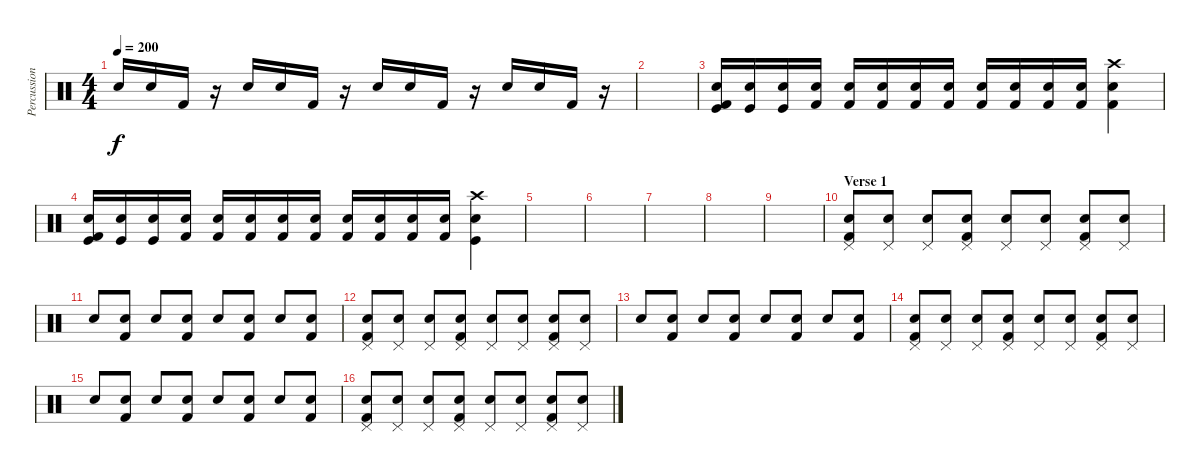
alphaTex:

\track ("Percussion" "Percussion") {instrument percussion}
\staff {score}
\articulation defaults
\ts (4 4)
\tempo 200
\clef neutral
\ks c "Snare (hit) 2".16{dy f} "Electric Snare (hit)".16 "Kick (hit) 2".16
r.16 "Snare (hit) 2".16 "Electric Snare (hit)".16 "Kick (hit) 2".16 r.16 "Snare (hit) 2".16 "Electric Snare (hit)".16 "Kick (hit) 2".16 r.16 "Snare (hit) 2".16 "Electric Snare (hit)".16 "Kick (hit) 2".16 r.16 |
|
("Kick (hit) 2" "Kick (hit)" "Snare (hit) 2").16 ("Kick (hit)" "Electric Snare (hit)").16 ("Snare (hit) 2" "Kick (hit)").16 ("Electric Snare (hit)" "Kick (hit) 2").16 ("Kick (hit) 2" "Snare (hit) 2").16 ("Kick (hit) 2" "Electric Snare (hit)").16 ("Kick (hit) 2" "Snare (hit) 2").16 ("Snare (hit) 2" "Kick (hit) 2").16 ("Kick (hit) 2" "Electric Snare (hit)").16 ("Snare (hit) 2" "Kick (hit) 2").16 ("Kick (hit) 2" "Electric Snare (hit)").16 ("Snare (hit) 2" "Kick (hit) 2").16 ("Kick (hit) 2" "Crash high (hit)" "Snare (hit) 2").4 |
\section ("" "")
("Kick (hit) 2" "Kick (hit)" "Snare (hit) 2").16 ("Kick (hit)" "Electric Snare (hit)").16 ("Snare (hit) 2" "Kick (hit)").16 ("Electric Snare (hit)" "Kick (hit) 2").16 ("Kick (hit) 2" "Snare (hit) 2").16 ("Kick (hit) 2" "Electric Snare (hit)").16 ("Kick (hit) 2" "Snare (hit) 2").16 ("Snare (hit) 2" "Kick (hit) 2").16 ("Kick (hit) 2" "Electric Snare (hit)").16 ("Snare (hit) 2" "Kick (hit) 2").16 ("Kick (hit) 2" "Electric Snare (hit)").16 ("Snare (hit) 2" "Kick (hit) 2").16 ("Crash high (hit)" "Kick (hit)" "Snare (hit) 2").4 |
|
|
|
|
|
\section ("" "Verse 1")
("Pedal Hi-Hat (hit)" "Kick (hit) 2" "Snare (hit) 2").8 ("Pedal Hi-Hat (hit)" "Electric Snare (hit)").8 ("Pedal Hi-Hat (hit)" "Electric Snare (hit)").8 ("Pedal Hi-Hat (hit)" "Snare (hit) 2" "Kick (hit) 2").8 ("Pedal Hi-Hat (hit)" "Electric Snare (hit)").8 ("Pedal Hi-Hat (hit)" "Electric Snare (hit)").8 ("Pedal Hi-Hat (hit)" "Kick (hit) 2" "Snare (hit) 2").8 ("Pedal Hi-Hat (hit)" "Electric Snare (hit)").8 |
"Electric Snare (hit)".8 ("Kick (hit) 2" "Snare (hit) 2").8 "Electric Snare (hit)".8 ("Kick (hit) 2" "Snare (hit) 2").8 "Electric Snare (hit)".8 ("Snare (hit) 2" "Kick (hit) 2").8 "Electric Snare (hit)".8 ("Snare (hit) 2" "Kick (hit) 2").8 |
("Pedal Hi-Hat (hit)" "Kick (hit) 2" "Snare (hit) 2").8 ("Pedal Hi-Hat (hit)" "Electric Snare (hit)").8 ("Pedal Hi-Hat (hit)" "Electric Snare (hit)").8 ("Pedal Hi-Hat (hit)" "Snare (hit) 2" "Kick (hit) 2").8 ("Pedal Hi-Hat (hit)" "Electric Snare (hit)").8 ("Pedal Hi-Hat (hit)" "Electric Snare (hit)").8 ("Pedal Hi-Hat (hit)" "Kick (hit) 2" "Snare (hit) 2").8 ("Pedal Hi-Hat (hit)" "Electric Snare (hit)").8 |
"Electric Snare (hit)".8 ("Kick (hit) 2" "Snare (hit) 2").8 "Electric Snare (hit)".8 ("Kick (hit) 2" "Snare (hit) 2").8 "Electric Snare (hit)".8 ("Snare (hit) 2" "Kick (hit) 2").8 "Electric Snare (hit)".8 ("Snare (hit) 2" "Kick (hit) 2").8 |
("Pedal Hi-Hat (hit)" "Kick (hit) 2" "Snare (hit) 2").8 ("Pedal Hi-Hat (hit)" "Electric Snare (hit)").8 ("Pedal Hi-Hat (hit)" "Electric Snare (hit)").8 ("Pedal Hi-Hat (hit)" "Snare (hit) 2" "Kick (hit) 2").8 ("Pedal Hi-Hat (hit)" "Electric Snare (hit)").8 ("Pedal Hi-Hat (hit)" "Electric Snare (hit)").8 ("Pedal Hi-Hat (hit)" "Kick (hit) 2" "Snare (hit) 2").8 ("Pedal Hi-Hat (hit)" "Electric Snare (hit)").8 |
"Electric Snare (hit)".8 ("Kick (hit) 2" "Snare (hit) 2").8 "Electric Snare (hit)".8 ("Kick (hit) 2" "Snare (hit) 2").8 "Electric Snare (hit)".8 ("Snare (hit) 2" "Kick (hit) 2").8 "Electric Snare (hit)".8 ("Snare (hit) 2" "Kick (hit) 2").8 |
("Pedal Hi-Hat (hit)" "Kick (hit) 2" "Snare (hit) 2").8 ("Pedal Hi-Hat (hit)" "Electric Snare (hit)").8 ("Pedal Hi-Hat (hit)" "Electric Snare (hit)").8 ("Pedal Hi-Hat (hit)" "Snare (hit) 2" "Kick (hit) 2").8 ("Pedal Hi-Hat (hit)" "Electric Snare (hit)").8 ("Pedal Hi-Hat (hit)" "Electric Snare (hit)").8 ("Pedal Hi-Hat (hit)" "Kick (hit) 2" "Snare (hit) 2").8 ("Pedal Hi-Hat (hit)" "Electric Snare (hit)").8
